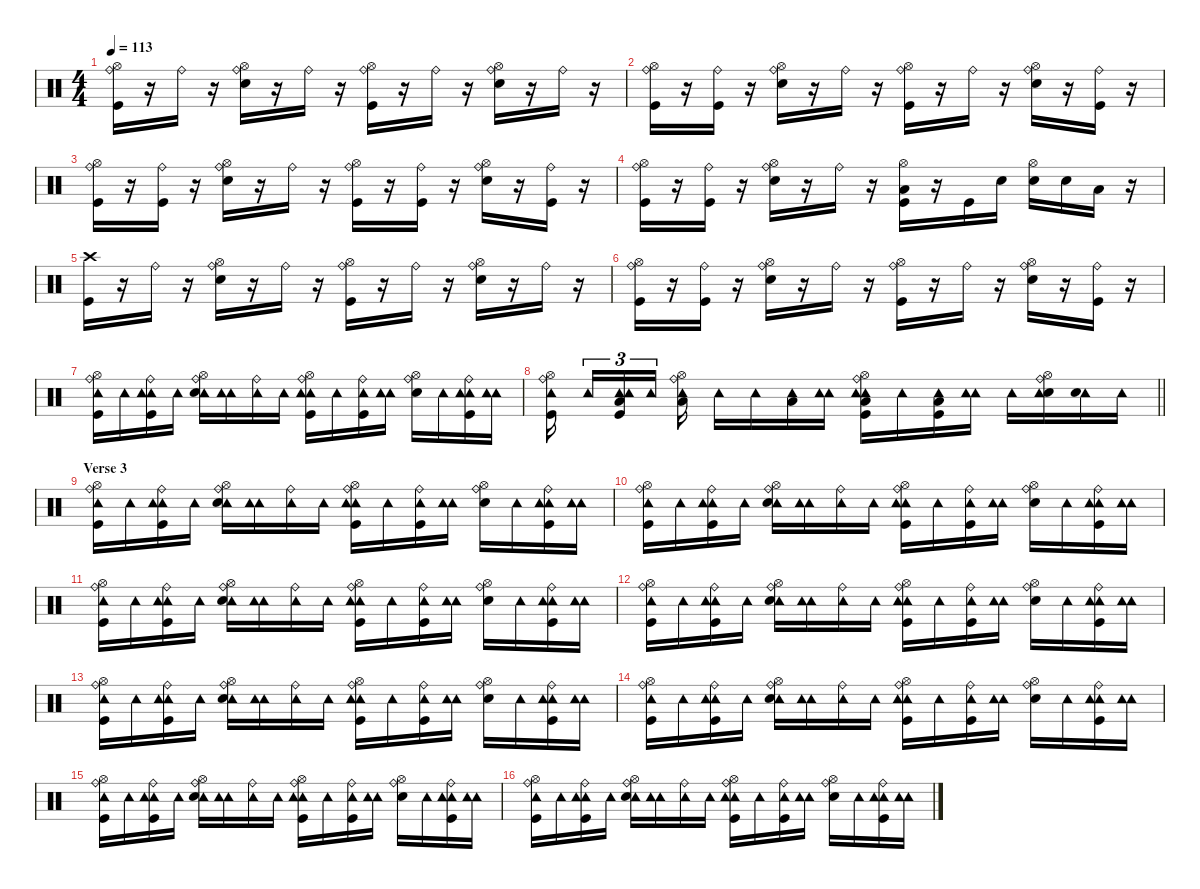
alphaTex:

\defaultSystemsLayout 4
\hideDynamics
\bracketExtendMode nobrackets
\singleTrackTrackNamePolicy hidden
\multiTrackTrackNamePolicy hidden
\firstSystemTrackNameMode fullname
\firstSystemTrackNameOrientation horizontal
\otherSystemsTrackNameOrientation horizontal
\track ("Drums" "drm.") {instrument percussion}
\staff {score}
\articulation defaults
\ts (4 4)
\tempo 113
\clef neutral
\ks c
("Kick (hit)" "Hi-Hat (open)" "Ride (bell)").16{dy fff beam Down} r.16{beam Down} "Ride (bell)".16{dy p beam Down} r.16{beam Down} ("Snare (hit) 2" "Hi-Hat (open)" "Ride (bell)").16{dy fff beam Down} r.16{beam Down} "Ride (bell)".16{dy pp beam Down} r.16{beam Down} ("Kick (hit)" "Hi-Hat (open)" "Ride (bell)").16{dy fff beam Down} r.16{beam Down} "Ride (bell)".16{dy p beam Down} r.16{beam Down} ("Snare (hit) 2" "Hi-Hat (open)" "Ride (bell)").16{dy fff beam Down} r.16{beam Down} "Ride (bell)".16{dy p beam Down} r.16{beam Down} |
("Kick (hit)" "Hi-Hat (open)" "Ride (bell)").16{dy fff beam Down} r.16{beam Down} ("Kick (hit)" "Ride (bell)").16{dy ff beam Down} r.16{beam Down} ("Snare (hit) 2" "Hi-Hat (open)" "Ride (bell)").16{dy fff beam Down} r.16{beam Down} "Ride (bell)".16{dy p beam Down} r.16{beam Down} ("Kick (hit)" "Hi-Hat (open)" "Ride (bell)").16{dy fff beam Down} r.16{beam Down} "Ride (bell)".16{dy pp beam Down} r.16{beam Down} ("Snare (hit) 2" "Hi-Hat (open)" "Ride (bell)").16{dy fff beam Down} r.16{beam Down} ("Kick (hit)" "Ride (bell)").16{dy ff beam Down} r.16{beam Down} |
("Kick (hit)" "Hi-Hat (open)" "Ride (bell)").16{dy fff beam Down} r.16{beam Down} ("Kick (hit)" "Ride (bell)").16{dy f beam Down} r.16{beam Down} ("Snare (hit) 2" "Hi-Hat (open)" "Ride (bell)").16{dy fff beam Down} r.16{beam Down} "Ride (bell)".16{dy pp beam Down} r.16{beam Down} ("Kick (hit)" "Hi-Hat (open)" "Ride (bell)").16{dy fff beam Down} r.16{beam Down} ("Kick (hit)" "Ride (bell)").16{dy ff beam Down} r.16{beam Down} ("Snare (hit) 2" "Hi-Hat (open)" "Ride (bell)").16{dy fff beam Down} r.16{beam Down} ("Kick (hit)" "Ride (bell)").16{dy f beam Down} r.16{beam Down} |
("Kick (hit)" "Hi-Hat (open)" "Ride (bell)").16{dy fff beam Down} r.16{beam Down} ("Kick (hit)" "Ride (bell)").16{dy ff beam Down} r.16{beam Down} ("Snare (hit) 2" "Hi-Hat (open)" "Ride (bell)").16{dy fff beam Down} r.16{beam Down} "Ride (bell)".16{dy pp beam Down} r.16{beam Down} ("Kick (hit)" "Low Tom (hit)" "Hi-Hat (open)").16{dy fff beam Down} r.16{beam Down} "Kick (hit)".16{dy ff beam Down} "Snare (hit) 2".16{dy f beam Down} ("Snare (hit) 2" "Hi-Hat (open)").16{dy fff beam Down} "Snare (hit) 2".16{dy ff beam Down} "Low Tom (hit)".16{beam Down} r.16{beam Down} |
("Kick (hit)" "Crash high (hit)").16{dy fff beam Down} r.16{beam Down} "Ride (bell)".16{dy p beam Down} r.16{beam Down} ("Snare (hit) 2" "Hi-Hat (open)" "Ride (bell)").16{dy fff beam Down} r.16{beam Down} "Ride (bell)".16{dy pp beam Down} r.16{beam Down} ("Kick (hit)" "Hi-Hat (open)" "Ride (bell)").16{dy fff beam Down} r.16{beam Down} "Ride (bell)".16{dy p beam Down} r.16{beam Down} ("Snare (hit) 2" "Hi-Hat (open)" "Ride (bell)").16{dy fff beam Down} r.16{beam Down} "Ride (bell)".16{dy p beam Down} r.16{beam Down} |
("Kick (hit)" "Hi-Hat (open)" "Ride (bell)").16{dy fff beam Down} r.16{beam Down} ("Kick (hit)" "Ride (bell)").16{dy ff beam Down} r.16{beam Down} ("Snare (hit) 2" "Hi-Hat (open)" "Ride (bell)").16{dy fff beam Down} r.16{beam Down} "Ride (bell)".16{dy p beam Down} r.16{beam Down} ("Kick (hit)" "Hi-Hat (open)" "Ride (bell)").16{dy fff beam Down} r.16{beam Down} "Ride (bell)".16{dy pp beam Down} r.16{beam Down} ("Snare (hit) 2" "Hi-Hat (open)" "Ride (bell)").16{dy fff beam Down} r.16{beam Down} ("Kick (hit)" "Ride (bell)").16{dy ff beam Down} r.16{beam Down} |
("Kick (hit)" "Hi-Hat (open)" "Ride (bell)" "Tambourine (hit)").16{dy fff beam Down} "Tambourine (hit)".16{dy pp beam Down} ("Tambourine (hit)" "Kick (hit)" "Ride (bell)" "Tambourine (hit)").16{dy p beam Down} "Tambourine (hit)".16{beam Down} ("Tambourine (hit)" "Snare (hit) 2" "Hi-Hat (open)" "Ride (bell)").16{beam Down} ("Tambourine (hit)" "Tambourine (hit)").16{beam Down} ("Tambourine (hit)" "Ride (bell)").16{beam Down} "Tambourine (hit)".16{dy pp beam Down} ("Tambourine (hit)" "Kick (hit)" "Hi-Hat (open)" "Ride (bell)" "Tambourine (hit)").16{dy p beam Down} "Tambourine (hit)".16{beam Down} ("Kick (hit)" "Ride (bell)" "Tambourine (hit)").16{dy ff beam Down} ("Tambourine (hit)" "Tambourine (hit)").16{dy pp beam Down} ("Snare (hit) 2" "Hi-Hat (open)" "Ride (bell)").16{dy fff beam Down} "Tambourine (hit)".16{dy pp beam Down} ("Tambourine (hit)" "Tambourine (hit)" "Kick (hit)" "Ride (bell)").16{beam Down} ("Tambourine (hit)" "Tambourine (hit)").16{dy p beam Down} |
\barLineRight lightlight
("Tambourine (hit)" "Kick (hit)" "Hi-Hat (open)" "Ride (bell)").16{dy f beam Down} "Tambourine (hit)".16{tu (3 2) dy ppp beam Up} ("Tambourine (hit)" "Kick (hit)" "Low Tom (hit)" "Tambourine (hit)").16{tu (3 2) dy pp beam Up} "Tambourine (hit)".16{tu (3 2) beam Up} ("Tambourine (hit)" "Low Tom (hit)" "Hi-Hat (open)" "Ride (bell)").16{dy p beam Down} "Tambourine (hit)".16{beam Down} "Tambourine (hit)".16{beam Down} ("Tambourine (hit)" "Low Tom (hit)").16{beam Down} ("Tambourine (hit)" "Tambourine (hit)").16{beam Down} ("Tambourine (hit)" "Kick (hit)" "Low Tom (hit)" "Hi-Hat (open)" "Ride (bell)" "Tambourine (hit)").16{beam Down} "Tambourine (hit)".16{beam Down} ("Tambourine (hit)" "Kick (hit)" "Low Tom (hit)").16{dy pp beam Down} ("Tambourine (hit)" "Tambourine (hit)").16{dy p beam Down} "Tambourine (hit)".16{beam Down} ("Snare (hit) 2" "Hi-Hat (open)" "Ride (bell)" "Tambourine (hit)").16{dy fff beam Down} ("Tambourine (hit)" "Snare (hit) 2").16{dy p beam Down} "Tambourine (hit)".16{dy pp beam Down} |
\section ("" "Verse 3")
("Kick (hit)" "Hi-Hat (open)" "Ride (bell)" "Tambourine (hit)").16{dy fff beam Down} "Tambourine (hit)".16{dy pp beam Down} ("Tambourine (hit)" "Kick (hit)" "Ride (bell)" "Tambourine (hit)").16{dy p beam Down} "Tambourine (hit)".16{beam Down} ("Tambourine (hit)" "Snare (hit) 2" "Hi-Hat (open)" "Ride (bell)").16{beam Down} ("Tambourine (hit)" "Tambourine (hit)").16{beam Down} ("Tambourine (hit)" "Ride (bell)").16{beam Down} "Tambourine (hit)".16{dy pp beam Down} ("Tambourine (hit)" "Kick (hit)" "Hi-Hat (open)" "Ride (bell)" "Tambourine (hit)").16{dy p beam Down} "Tambourine (hit)".16{beam Down} ("Kick (hit)" "Ride (bell)" "Tambourine (hit)").16{dy ff beam Down} ("Tambourine (hit)" "Tambourine (hit)").16{dy pp beam Down} ("Snare (hit) 2" "Hi-Hat (open)" "Ride (bell)").16{dy fff beam Down} "Tambourine (hit)".16{dy pp beam Down} ("Tambourine (hit)" "Tambourine (hit)" "Kick (hit)" "Ride (bell)").16{beam Down} ("Tambourine (hit)" "Tambourine (hit)").16{dy p beam Down} |
("Kick (hit)" "Hi-Hat (open)" "Ride (bell)" "Tambourine (hit)").16{dy fff beam Down} "Tambourine (hit)".16{dy pp beam Down} ("Tambourine (hit)" "Kick (hit)" "Ride (bell)" "Tambourine (hit)").16{dy p beam Down} "Tambourine (hit)".16{beam Down} ("Tambourine (hit)" "Snare (hit) 2" "Hi-Hat (open)" "Ride (bell)").16{beam Down} ("Tambourine (hit)" "Tambourine (hit)").16{beam Down} ("Tambourine (hit)" "Ride (bell)").16{beam Down} "Tambourine (hit)".16{dy pp beam Down} ("Tambourine (hit)" "Kick (hit)" "Hi-Hat (open)" "Ride (bell)" "Tambourine (hit)").16{dy p beam Down} "Tambourine (hit)".16{beam Down} ("Kick (hit)" "Ride (bell)" "Tambourine (hit)").16{dy ff beam Down} ("Tambourine (hit)" "Tambourine (hit)").16{dy pp beam Down} ("Snare (hit) 2" "Hi-Hat (open)" "Ride (bell)").16{dy fff beam Down} "Tambourine (hit)".16{dy pp beam Down} ("Tambourine (hit)" "Tambourine (hit)" "Kick (hit)" "Ride (bell)").16{beam Down} ("Tambourine (hit)" "Tambourine (hit)").16{dy p beam Down} |
("Kick (hit)" "Hi-Hat (open)" "Ride (bell)" "Tambourine (hit)").16{dy fff beam Down} "Tambourine (hit)".16{dy pp beam Down} ("Tambourine (hit)" "Kick (hit)" "Ride (bell)" "Tambourine (hit)").16{dy p beam Down} "Tambourine (hit)".16{beam Down} ("Tambourine (hit)" "Snare (hit) 2" "Hi-Hat (open)" "Ride (bell)").16{beam Down} ("Tambourine (hit)" "Tambourine (hit)").16{beam Down} ("Tambourine (hit)" "Ride (bell)").16{beam Down} "Tambourine (hit)".16{dy pp beam Down} ("Tambourine (hit)" "Kick (hit)" "Hi-Hat (open)" "Ride (bell)" "Tambourine (hit)").16{dy p beam Down} "Tambourine (hit)".16{beam Down} ("Kick (hit)" "Ride (bell)" "Tambourine (hit)").16{dy ff beam Down} ("Tambourine (hit)" "Tambourine (hit)").16{dy pp beam Down} ("Snare (hit) 2" "Hi-Hat (open)" "Ride (bell)").16{dy fff beam Down} "Tambourine (hit)".16{dy pp beam Down} ("Tambourine (hit)" "Tambourine (hit)" "Kick (hit)" "Ride (bell)").16{beam Down} ("Tambourine (hit)" "Tambourine (hit)").16{dy p beam Down} |
("Kick (hit)" "Hi-Hat (open)" "Ride (bell)" "Tambourine (hit)").16{dy fff beam Down} "Tambourine (hit)".16{dy pp beam Down} ("Tambourine (hit)" "Kick (hit)" "Ride (bell)" "Tambourine (hit)").16{dy p beam Down} "Tambourine (hit)".16{beam Down} ("Tambourine (hit)" "Snare (hit) 2" "Hi-Hat (open)" "Ride (bell)").16{beam Down} ("Tambourine (hit)" "Tambourine (hit)").16{beam Down} ("Tambourine (hit)" "Ride (bell)").16{beam Down} "Tambourine (hit)".16{dy pp beam Down} ("Tambourine (hit)" "Kick (hit)" "Hi-Hat (open)" "Ride (bell)" "Tambourine (hit)").16{dy p beam Down} "Tambourine (hit)".16{beam Down} ("Kick (hit)" "Ride (bell)" "Tambourine (hit)").16{dy ff beam Down} ("Tambourine (hit)" "Tambourine (hit)").16{dy pp beam Down} ("Snare (hit) 2" "Hi-Hat (open)" "Ride (bell)").16{dy fff beam Down} "Tambourine (hit)".16{dy pp beam Down} ("Tambourine (hit)" "Tambourine (hit)" "Kick (hit)" "Ride (bell)").16{beam Down} ("Tambourine (hit)" "Tambourine (hit)").16{dy p beam Down} |
("Kick (hit)" "Hi-Hat (open)" "Ride (bell)" "Tambourine (hit)").16{dy fff beam Down} "Tambourine (hit)".16{dy pp beam Down} ("Tambourine (hit)" "Kick (hit)" "Ride (bell)" "Tambourine (hit)").16{dy p beam Down} "Tambourine (hit)".16{beam Down} ("Tambourine (hit)" "Snare (hit) 2" "Hi-Hat (open)" "Ride (bell)").16{beam Down} ("Tambourine (hit)" "Tambourine (hit)").16{beam Down} ("Tambourine (hit)" "Ride (bell)").16{beam Down} "Tambourine (hit)".16{dy pp beam Down} ("Tambourine (hit)" "Kick (hit)" "Hi-Hat (open)" "Ride (bell)" "Tambourine (hit)").16{dy p beam Down} "Tambourine (hit)".16{beam Down} ("Kick (hit)" "Ride (bell)" "Tambourine (hit)").16{dy ff beam Down} ("Tambourine (hit)" "Tambourine (hit)").16{dy pp beam Down} ("Snare (hit) 2" "Hi-Hat (open)" "Ride (bell)").16{dy fff beam Down} "Tambourine (hit)".16{dy pp beam Down} ("Tambourine (hit)" "Tambourine (hit)" "Kick (hit)" "Ride (bell)").16{beam Down} ("Tambourine (hit)" "Tambourine (hit)").16{dy p beam Down} |
("Kick (hit)" "Hi-Hat (open)" "Ride (bell)" "Tambourine (hit)").16{dy fff beam Down} "Tambourine (hit)".16{dy pp beam Down} ("Tambourine (hit)" "Kick (hit)" "Ride (bell)" "Tambourine (hit)").16{dy p beam Down} "Tambourine (hit)".16{beam Down} ("Tambourine (hit)" "Snare (hit) 2" "Hi-Hat (open)" "Ride (bell)").16{beam Down} ("Tambourine (hit)" "Tambourine (hit)").16{beam Down} ("Tambourine (hit)" "Ride (bell)").16{beam Down} "Tambourine (hit)".16{dy pp beam Down} ("Tambourine (hit)" "Kick (hit)" "Hi-Hat (open)" "Ride (bell)" "Tambourine (hit)").16{dy p beam Down} "Tambourine (hit)".16{beam Down} ("Kick (hit)" "Ride (bell)" "Tambourine (hit)").16{dy ff beam Down} ("Tambourine (hit)" "Tambourine (hit)").16{dy pp beam Down} ("Snare (hit) 2" "Hi-Hat (open)" "Ride (bell)").16{dy fff beam Down} "Tambourine (hit)".16{dy pp beam Down} ("Tambourine (hit)" "Tambourine (hit)" "Kick (hit)" "Ride (bell)").16{beam Down} ("Tambourine (hit)" "Tambourine (hit)").16{dy p beam Down} |
("Kick (hit)" "Hi-Hat (open)" "Ride (bell)" "Tambourine (hit)").16{dy fff beam Down} "Tambourine (hit)".16{dy pp beam Down} ("Tambourine (hit)" "Kick (hit)" "Ride (bell)" "Tambourine (hit)").16{dy p beam Down} "Tambourine (hit)".16{beam Down} ("Tambourine (hit)" "Snare (hit) 2" "Hi-Hat (open)" "Ride (bell)").16{beam Down} ("Tambourine (hit)" "Tambourine (hit)").16{beam Down} ("Tambourine (hit)" "Ride (bell)").16{beam Down} "Tambourine (hit)".16{dy pp beam Down} ("Tambourine (hit)" "Kick (hit)" "Hi-Hat (open)" "Ride (bell)" "Tambourine (hit)").16{dy p beam Down} "Tambourine (hit)".16{beam Down} ("Kick (hit)" "Ride (bell)" "Tambourine (hit)").16{dy ff beam Down} ("Tambourine (hit)" "Tambourine (hit)").16{dy pp beam Down} ("Snare (hit) 2" "Hi-Hat (open)" "Ride (bell)").16{dy fff beam Down} "Tambourine (hit)".16{dy pp beam Down} ("Tambourine (hit)" "Tambourine (hit)" "Kick (hit)" "Ride (bell)").16{beam Down} ("Tambourine (hit)" "Tambourine (hit)").16{dy p beam Down} |
("Kick (hit)" "Hi-Hat (open)" "Ride (bell)" "Tambourine (hit)").16{dy fff beam Down} "Tambourine (hit)".16{dy pp beam Down} ("Tambourine (hit)" "Kick (hit)" "Ride (bell)" "Tambourine (hit)").16{dy p beam Down} "Tambourine (hit)".16{beam Down} ("Tambourine (hit)" "Snare (hit) 2" "Hi-Hat (open)" "Ride (bell)").16{beam Down} ("Tambourine (hit)" "Tambourine (hit)").16{beam Down} ("Tambourine (hit)" "Ride (bell)").16{beam Down} "Tambourine (hit)".16{dy pp beam Down} ("Tambourine (hit)" "Kick (hit)" "Hi-Hat (open)" "Ride (bell)" "Tambourine (hit)").16{dy p beam Down} "Tambourine (hit)".16{beam Down} ("Kick (hit)" "Ride (bell)" "Tambourine (hit)").16{dy ff beam Down} ("Tambourine (hit)" "Tambourine (hit)").16{dy pp beam Down} ("Snare (hit) 2" "Hi-Hat (open)" "Ride (bell)").16{dy fff beam Down} "Tambourine (hit)".16{dy pp beam Down} ("Tambourine (hit)" "Tambourine (hit)" "Kick (hit)" "Ride (bell)").16{beam Down} ("Tambourine (hit)" "Tambourine (hit)").16{dy p beam Down}
